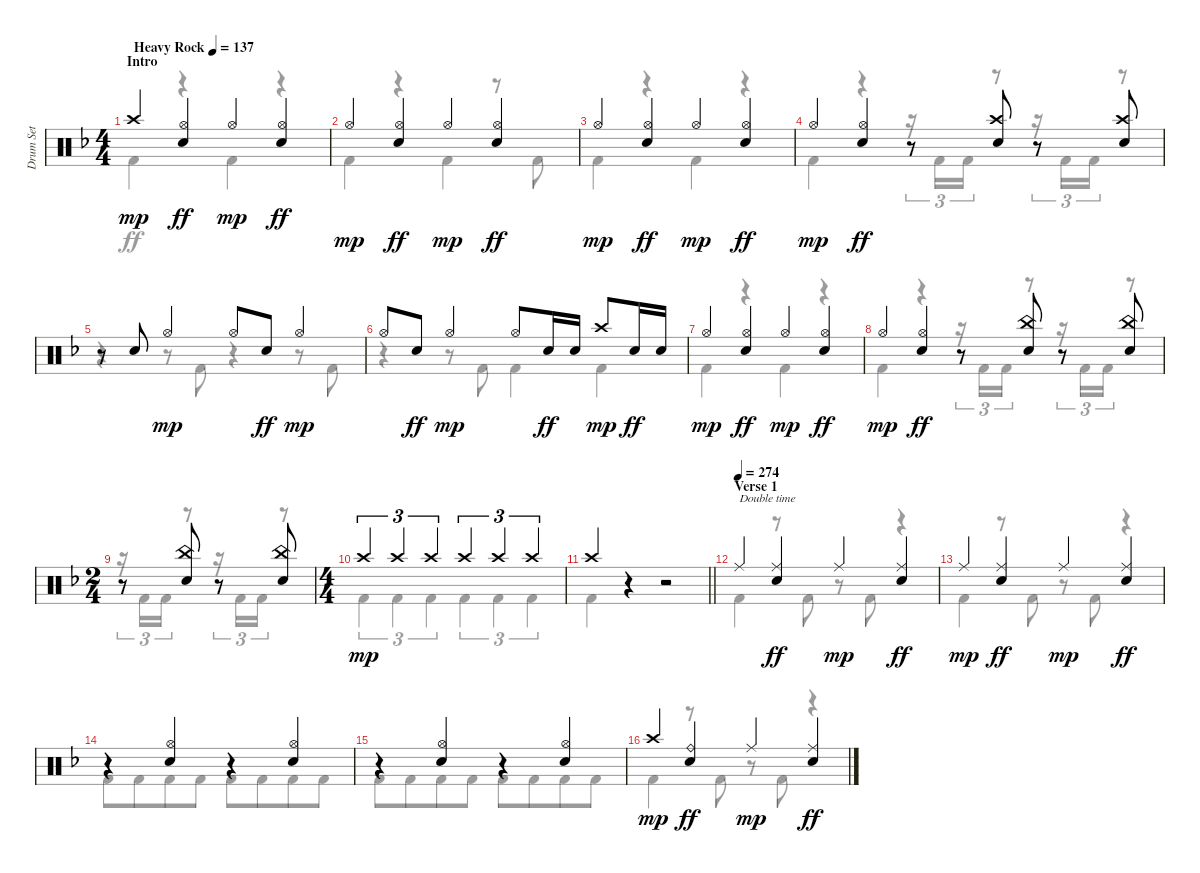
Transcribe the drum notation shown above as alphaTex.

\track ("Drum Set" "Drum Set") {instrument percussion}
\staff {score}
\articulation defaults
\voice
\ts (4 4)
\section ("" "Intro")
\tempo (137 "Heavy Rock")
\clef neutral
\ks dminor "Crash high (hit)".4{dy mp}
("Hi-Hat (open)" "Electric Snare (hit)").4{dy ff} "Hi-Hat (open)".4{dy mp} ("Hi-Hat (open)" "Electric Snare (hit)").4{dy ff} |
"Hi-Hat (open)".4{dy mp} ("Hi-Hat (open)" "Electric Snare (hit)").4{dy ff} "Hi-Hat (open)".4{dy mp} ("Hi-Hat (open)" "Electric Snare (hit)").4{dy ff} |
"Hi-Hat (open)".4{dy mp} ("Hi-Hat (open)" "Electric Snare (hit)").4{dy ff} "Hi-Hat (open)".4{dy mp} ("Hi-Hat (open)" "Electric Snare (hit)").4{dy ff} |
"Hi-Hat (open)".4{dy mp} ("Hi-Hat (open)" "Electric Snare (hit)").4{dy ff} r.8 ("Crash high (hit)" "Electric Snare (hit)").8 r.8 ("Crash high (hit)" "Electric Snare (hit)").8 |
r.8 "Electric Snare (hit)".8 "Hi-Hat (open)".4{dy mp} "Hi-Hat (open)".8 "Electric Snare (hit)".8{dy ff} "Hi-Hat (open)".4{dy mp} |
"Hi-Hat (open)".8 "Electric Snare (hit)".8{dy ff} "Hi-Hat (open)".4{dy mp} "Hi-Hat (open)".8 "Electric Snare (hit)".16{dy ff} "Electric Snare (hit)".16 "Crash high (hit)".8{dy mp} "Electric Snare (hit)".16{dy ff} "Electric Snare (hit)".16 |
"Hi-Hat (open)".4{dy mp} ("Hi-Hat (open)" "Electric Snare (hit)").4{dy ff} "Hi-Hat (open)".4{dy mp} ("Hi-Hat (open)" "Electric Snare (hit)").4{dy ff} |
"Hi-Hat (open)".4{dy mp} ("Hi-Hat (open)" "Electric Snare (hit)").4{dy ff} r.8 ("China (hit)" "Electric Snare (hit)").8 r.8 ("China (hit)" "Electric Snare (hit)").8 |
\ts (2 4)
r.8 ("China (hit)" "Electric Snare (hit)").8 r.8 ("China (hit)" "Electric Snare (hit)").8 |
\ts (4 4)
"Crash high (hit)".4{tu (3 2) dy mp} "Crash high (hit)".4{tu (3 2)} "Crash high (hit)".4{tu (3 2)} "Crash high (hit)".4{tu (3 2)} "Crash high (hit)".4{tu (3 2)} "Crash high (hit)".4{tu (3 2)} |
\barLineRight lightlight "Crash high (hit)".4
r.4 r.2 |
\section ("" "Verse 1")
\tempo (274)
"Ride (middle)".4{txt "Double time"} ("Ride (middle)" "Electric Snare (hit)").4{dy ff} "Ride (middle)".4{dy mp} ("Ride (middle)" "Electric Snare (hit)").4{dy ff} |
"Ride (middle)".4{dy mp} ("Ride (middle)" "Electric Snare (hit)").4{dy ff} "Ride (middle)".4{dy mp} ("Ride (middle)" "Electric Snare (hit)").4{dy ff} |
r.4 ("Hi-Hat (open)" "Electric Snare (hit)").4 r.4 ("Hi-Hat (open)" "Electric Snare (hit)").4 |
r.4 ("Hi-Hat (open)" "Electric Snare (hit)").4 r.4 ("Hi-Hat (open)" "Electric Snare (hit)").4 |
"Crash high (hit)".4{dy mp} ("Ride (bell)" "Electric Snare (hit)").4{dy ff} "Ride (middle)".4{dy mp} ("Ride (middle)" "Electric Snare (hit)").4{dy ff}
\voice
\clef neutral
\ottava regular
\simile none
\ks dminor "Kick (hit) 2".4{dy ff}
r.4 "Kick (hit) 2".4 r.4 |
"Kick (hit) 2".4 r.4 "Kick (hit) 2".4 r.8 "Kick (hit) 2".8 |
"Kick (hit) 2".4 r.4 "Kick (hit) 2".4 r.4 |
"Kick (hit) 2".4 r.4 r.16{tu (3 2)} "Kick (hit) 2".16{tu (3 2)} "Kick (hit) 2".16{tu (3 2)} r.8 r.16{tu (3 2)} "Kick (hit) 2".16{tu (3 2)} "Kick (hit) 2".16{tu (3 2)} r.8 |
r.4 r.8 "Kick (hit) 2".8 r.4 r.8 "Kick (hit) 2".8 |
r.4 r.8 "Kick (hit) 2".8 "Kick (hit) 2".4 "Kick (hit) 2".4 |
"Kick (hit) 2".4 r.4 "Kick (hit) 2".4 r.4 |
"Kick (hit) 2".4 r.4 r.16{tu (3 2)} "Kick (hit) 2".16{tu (3 2)} "Kick (hit) 2".16{tu (3 2)} r.8 r.16{tu (3 2)} "Kick (hit) 2".16{tu (3 2)} "Kick (hit) 2".16{tu (3 2)} r.8 |
r.16{tu (3 2)} "Kick (hit) 2".16{tu (3 2)} "Kick (hit) 2".16{tu (3 2)} r.8 r.16{tu (3 2)} "Kick (hit) 2".16{tu (3 2)} "Kick (hit) 2".16{tu (3 2)} r.8 |
"Kick (hit) 2".4{tu (3 2)} "Kick (hit) 2".4{tu (3 2)} "Kick (hit) 2".4{tu (3 2)} "Kick (hit) 2".4{tu (3 2)} "Kick (hit) 2".4{tu (3 2)} "Kick (hit) 2".4{tu (3 2)} |
\barLineRight lightlight "Kick (hit) 2".4
r.4 r.2 |
"Kick (hit) 2".4 r.8 "Kick (hit) 2".8 r.8 "Kick (hit) 2".8 r.4 |
"Kick (hit) 2".4 r.8 "Kick (hit) 2".8 r.8 "Kick (hit) 2".8 r.4 |
"Kick (hit) 2".8 "Kick (hit) 2".8{beam merge} "Kick (hit) 2".8 "Kick (hit) 2".8 "Kick (hit) 2".8 "Kick (hit) 2".8{beam merge} "Kick (hit) 2".8 "Kick (hit) 2".8 |
"Kick (hit) 2".8 "Kick (hit) 2".8{beam merge} "Kick (hit) 2".8 "Kick (hit) 2".8 "Kick (hit) 2".8 "Kick (hit) 2".8{beam merge} "Kick (hit) 2".8 "Kick (hit) 2".8 |
"Kick (hit) 2".4 r.8 "Kick (hit) 2".8 r.8 "Kick (hit) 2".8 r.4
